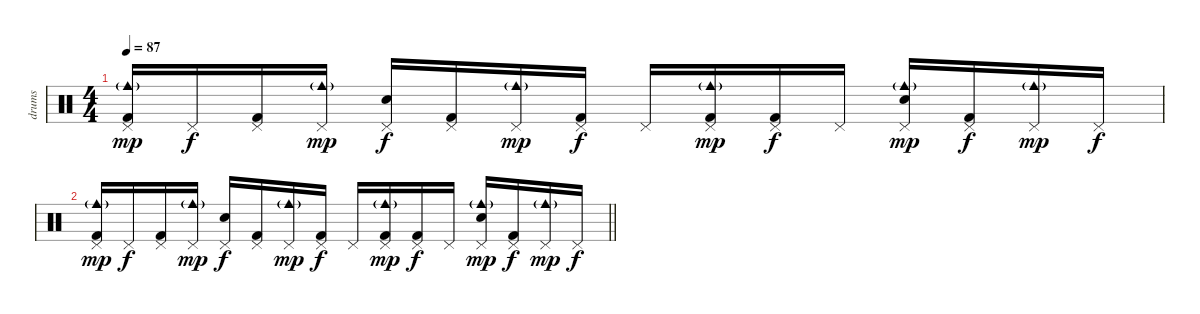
\track ("drums" "drums") {instrument percussion}
\staff {score}
\articulation defaults
\ts (4 4)
\tempo 87
\clef neutral
\ks c
("Kick (hit) 2" "Pedal Hi-Hat (hit)" "Cowbell medium (hit)"{g}).16{dy mp} "Pedal Hi-Hat (hit)".16{dy f} ("Kick (hit) 2" "Pedal Hi-Hat (hit)").16 ("Pedal Hi-Hat (hit)" "Cowbell medium (hit)"{g}).16{dy mp} ("Snare (hit) 2" "Pedal Hi-Hat (hit)").16{dy f} ("Kick (hit) 2" "Pedal Hi-Hat (hit)").16 ("Pedal Hi-Hat (hit)" "Cowbell medium (hit)"{g}).16{dy mp} ("Kick (hit) 2" "Pedal Hi-Hat (hit)").16{dy f} "Pedal Hi-Hat (hit)".16 ("Kick (hit) 2" "Pedal Hi-Hat (hit)" "Cowbell medium (hit)"{g}).16{dy mp} ("Kick (hit) 2" "Pedal Hi-Hat (hit)").16{dy f} "Pedal Hi-Hat (hit)".16 ("Snare (hit) 2" "Pedal Hi-Hat (hit)" "Cowbell medium (hit)"{g}).16{dy mp} ("Kick (hit) 2" "Pedal Hi-Hat (hit)").16{dy f} ("Pedal Hi-Hat (hit)" "Cowbell medium (hit)"{g}).16{dy mp} "Pedal Hi-Hat (hit)".16{dy f} |
\barLineRight lightlight
("Kick (hit) 2" "Pedal Hi-Hat (hit)" "Cowbell medium (hit)"{g}).16{dy mp} "Pedal Hi-Hat (hit)".16{dy f} ("Kick (hit) 2" "Pedal Hi-Hat (hit)").16 ("Pedal Hi-Hat (hit)" "Cowbell medium (hit)"{g}).16{dy mp} ("Snare (hit) 2" "Pedal Hi-Hat (hit)").16{dy f} ("Kick (hit) 2" "Pedal Hi-Hat (hit)").16 ("Pedal Hi-Hat (hit)" "Cowbell medium (hit)"{g}).16{dy mp} ("Kick (hit) 2" "Pedal Hi-Hat (hit)").16{dy f} "Pedal Hi-Hat (hit)".16 ("Kick (hit) 2" "Pedal Hi-Hat (hit)" "Cowbell medium (hit)"{g}).16{dy mp} ("Kick (hit) 2" "Pedal Hi-Hat (hit)").16{dy f} "Pedal Hi-Hat (hit)".16 ("Snare (hit) 2" "Pedal Hi-Hat (hit)" "Cowbell medium (hit)"{g}).16{dy mp} ("Kick (hit) 2" "Pedal Hi-Hat (hit)").16{dy f} ("Pedal Hi-Hat (hit)" "Cowbell medium (hit)"{g}).16{dy mp} "Pedal Hi-Hat (hit)".16{dy f}
